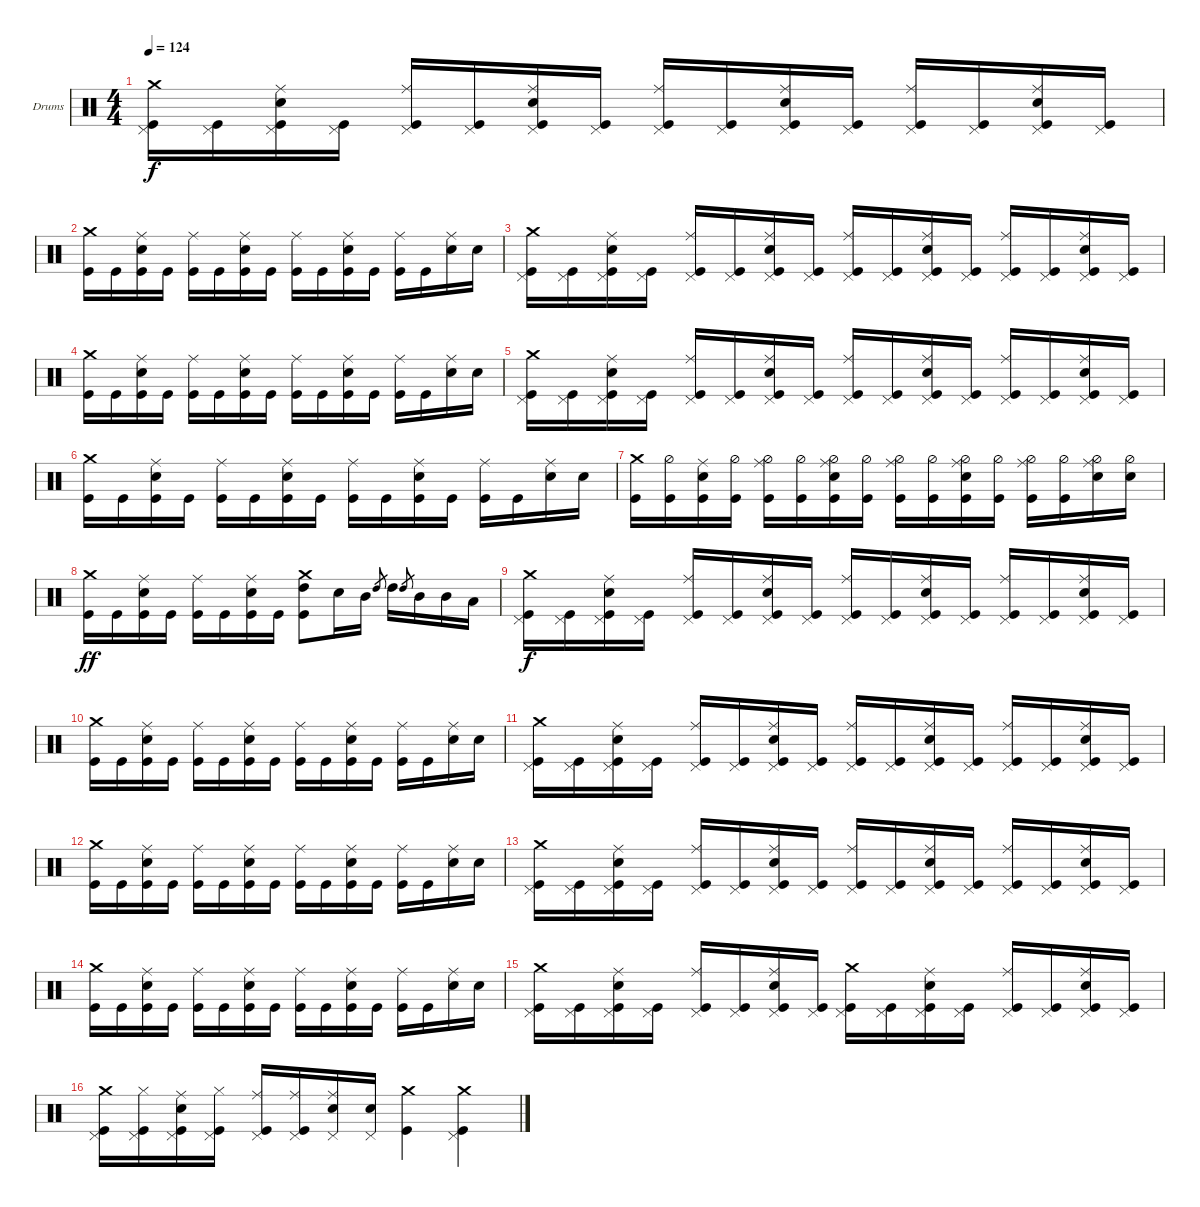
\defaultSystemsLayout 4
\bracketExtendMode groupsimilarinstruments
\firstSystemTrackNameOrientation horizontal
\otherSystemsTrackNameOrientation horizontal
\track ("Drumkit" "Drums") {instrument percussion}
\staff {score}
\articulation defaults
\ts (4 4)
\tempo 124
\clef neutral
\ks c
("Crash medium (hit)" "Kick (hit)" "Pedal Hi-Hat (hit)").16{dy f} ("Kick (hit)" "Pedal Hi-Hat (hit)").16 ("Snare (hit) 2" "Ride (middle)" "Kick (hit)" "Pedal Hi-Hat (hit)").16 ("Kick (hit)" "Pedal Hi-Hat (hit)").16 ("Ride (middle)" "Kick (hit)" "Pedal Hi-Hat (hit)").16 ("Kick (hit)" "Pedal Hi-Hat (hit)").16 ("Snare (hit) 2" "Ride (middle)" "Kick (hit)" "Pedal Hi-Hat (hit)").16 ("Kick (hit)" "Pedal Hi-Hat (hit)").16 ("Ride (middle)" "Kick (hit)" "Pedal Hi-Hat (hit)").16 ("Kick (hit)" "Pedal Hi-Hat (hit)").16 ("Snare (hit) 2" "Ride (middle)" "Kick (hit)" "Pedal Hi-Hat (hit)").16 ("Kick (hit)" "Pedal Hi-Hat (hit)").16 ("Ride (middle)" "Kick (hit)" "Pedal Hi-Hat (hit)").16 ("Kick (hit)" "Pedal Hi-Hat (hit)").16 ("Snare (hit) 2" "Ride (middle)" "Kick (hit)" "Pedal Hi-Hat (hit)").16 ("Kick (hit)" "Pedal Hi-Hat (hit)").16 |
("Crash medium (hit)" "Kick (hit)").16 "Kick (hit)".16 ("Snare (hit) 2" "Ride (middle)" "Kick (hit)").16 "Kick (hit)".16 ("Ride (middle)" "Kick (hit)").16 "Kick (hit)".16 ("Snare (hit) 2" "Ride (middle)" "Kick (hit)").16 "Kick (hit)".16 ("Ride (middle)" "Kick (hit)").16 "Kick (hit)".16 ("Snare (hit) 2" "Ride (middle)" "Kick (hit)").16 "Kick (hit)".16 ("Ride (middle)" "Kick (hit)").16 "Kick (hit)".16 ("Snare (hit) 2" "Ride (middle)").16 "Snare (hit) 2".16 |
("Crash medium (hit)" "Kick (hit)" "Pedal Hi-Hat (hit)").16 ("Kick (hit)" "Pedal Hi-Hat (hit)").16 ("Snare (hit) 2" "Ride (middle)" "Kick (hit)" "Pedal Hi-Hat (hit)").16 ("Kick (hit)" "Pedal Hi-Hat (hit)").16 ("Ride (middle)" "Kick (hit)" "Pedal Hi-Hat (hit)").16 ("Kick (hit)" "Pedal Hi-Hat (hit)").16 ("Snare (hit) 2" "Ride (middle)" "Kick (hit)" "Pedal Hi-Hat (hit)").16 ("Kick (hit)" "Pedal Hi-Hat (hit)").16 ("Ride (middle)" "Kick (hit)" "Pedal Hi-Hat (hit)").16 ("Kick (hit)" "Pedal Hi-Hat (hit)").16 ("Snare (hit) 2" "Ride (middle)" "Kick (hit)" "Pedal Hi-Hat (hit)").16 ("Kick (hit)" "Pedal Hi-Hat (hit)").16 ("Ride (middle)" "Kick (hit)" "Pedal Hi-Hat (hit)").16 ("Kick (hit)" "Pedal Hi-Hat (hit)").16 ("Snare (hit) 2" "Ride (middle)" "Kick (hit)" "Pedal Hi-Hat (hit)").16 ("Kick (hit)" "Pedal Hi-Hat (hit)").16 |
("Crash medium (hit)" "Kick (hit)").16 "Kick (hit)".16 ("Snare (hit) 2" "Ride (middle)" "Kick (hit)").16 "Kick (hit)".16 ("Ride (middle)" "Kick (hit)").16 "Kick (hit)".16 ("Snare (hit) 2" "Ride (middle)" "Kick (hit)").16 "Kick (hit)".16 ("Ride (middle)" "Kick (hit)").16 "Kick (hit)".16 ("Snare (hit) 2" "Ride (middle)" "Kick (hit)").16 "Kick (hit)".16 ("Ride (middle)" "Kick (hit)").16 "Kick (hit)".16 ("Snare (hit) 2" "Ride (middle)").16 "Snare (hit) 2".16 |
("Crash medium (hit)" "Kick (hit)" "Pedal Hi-Hat (hit)").16 ("Kick (hit)" "Pedal Hi-Hat (hit)").16 ("Snare (hit) 2" "Ride (middle)" "Kick (hit)" "Pedal Hi-Hat (hit)").16 ("Kick (hit)" "Pedal Hi-Hat (hit)").16 ("Ride (middle)" "Kick (hit)" "Pedal Hi-Hat (hit)").16 ("Kick (hit)" "Pedal Hi-Hat (hit)").16 ("Snare (hit) 2" "Ride (middle)" "Kick (hit)" "Pedal Hi-Hat (hit)").16 ("Kick (hit)" "Pedal Hi-Hat (hit)").16 ("Ride (middle)" "Kick (hit)" "Pedal Hi-Hat (hit)").16 ("Kick (hit)" "Pedal Hi-Hat (hit)").16 ("Snare (hit) 2" "Ride (middle)" "Kick (hit)" "Pedal Hi-Hat (hit)").16 ("Kick (hit)" "Pedal Hi-Hat (hit)").16 ("Ride (middle)" "Kick (hit)" "Pedal Hi-Hat (hit)").16 ("Kick (hit)" "Pedal Hi-Hat (hit)").16 ("Snare (hit) 2" "Ride (middle)" "Kick (hit)" "Pedal Hi-Hat (hit)").16 ("Kick (hit)" "Pedal Hi-Hat (hit)").16 |
("Crash medium (hit)" "Kick (hit)").16 "Kick (hit)".16 ("Snare (hit) 2" "Ride (middle)" "Kick (hit)").16 "Kick (hit)".16 ("Ride (middle)" "Kick (hit)").16 "Kick (hit)".16 ("Snare (hit) 2" "Ride (middle)" "Kick (hit)").16 "Kick (hit)".16 ("Ride (middle)" "Kick (hit)").16 "Kick (hit)".16 ("Snare (hit) 2" "Ride (middle)" "Kick (hit)").16 "Kick (hit)".16 ("Ride (middle)" "Kick (hit)").16 "Kick (hit)".16 ("Snare (hit) 2" "Ride (middle)").16 "Snare (hit) 2".16 |
("Crash medium (hit)" "Kick (hit)").16 ("Kick (hit)" "Hi-Hat (half)").16 ("Snare (hit) 2" "Ride (middle)" "Kick (hit)").16 ("Kick (hit)" "Hi-Hat (half)").16 ("Ride (middle)" "Kick (hit)" "Hi-Hat (half)").16 ("Kick (hit)" "Hi-Hat (half)").16 ("Snare (hit) 2" "Ride (middle)" "Kick (hit)" "Hi-Hat (half)").16 ("Kick (hit)" "Hi-Hat (half)").16 ("Ride (middle)" "Kick (hit)" "Hi-Hat (half)").16 ("Kick (hit)" "Hi-Hat (half)").16 ("Snare (hit) 2" "Ride (middle)" "Kick (hit)" "Hi-Hat (half)").16 ("Kick (hit)" "Hi-Hat (half)").16 ("Ride (middle)" "Kick (hit)" "Hi-Hat (half)").16 ("Kick (hit)" "Hi-Hat (half)").16 ("Snare (hit) 2" "Ride (middle)" "Hi-Hat (half)").16 ("Snare (hit) 2" "Hi-Hat (half)").16 |
("Crash medium (hit)" "Kick (hit)").16{dy ff} "Kick (hit)".16 ("Snare (hit) 2" "Ride (middle)" "Kick (hit)").16 "Kick (hit)".16 ("Ride (middle)" "Kick (hit)").16 "Kick (hit)".16 ("Snare (hit) 2" "Ride (middle)" "Kick (hit)").16 "Kick (hit)".16 ("Kick (hit)" "Crash medium (hit)" "High Tom (hit)").8 "Snare (hit) 2".16 "Mid Tom (hit)".16 "High Tom (hit)".8{gr} "High Tom (hit)".16 "High Tom (hit)".8{gr} "Mid Tom (hit)".16 "Mid Tom (hit)".16 "Low Tom (hit)".16 |
("Crash medium (hit)" "Kick (hit)" "Pedal Hi-Hat (hit)").16{dy f} ("Kick (hit)" "Pedal Hi-Hat (hit)").16 ("Snare (hit) 2" "Ride (middle)" "Kick (hit)" "Pedal Hi-Hat (hit)").16 ("Kick (hit)" "Pedal Hi-Hat (hit)").16 ("Ride (middle)" "Kick (hit)" "Pedal Hi-Hat (hit)").16 ("Kick (hit)" "Pedal Hi-Hat (hit)").16 ("Snare (hit) 2" "Ride (middle)" "Kick (hit)" "Pedal Hi-Hat (hit)").16 ("Kick (hit)" "Pedal Hi-Hat (hit)").16 ("Ride (middle)" "Kick (hit)" "Pedal Hi-Hat (hit)").16 ("Kick (hit)" "Pedal Hi-Hat (hit)").16 ("Snare (hit) 2" "Ride (middle)" "Kick (hit)" "Pedal Hi-Hat (hit)").16 ("Kick (hit)" "Pedal Hi-Hat (hit)").16 ("Ride (middle)" "Kick (hit)" "Pedal Hi-Hat (hit)").16 ("Kick (hit)" "Pedal Hi-Hat (hit)").16 ("Snare (hit) 2" "Ride (middle)" "Kick (hit)" "Pedal Hi-Hat (hit)").16 ("Kick (hit)" "Pedal Hi-Hat (hit)").16 |
("Crash medium (hit)" "Kick (hit)").16 "Kick (hit)".16 ("Snare (hit) 2" "Ride (middle)" "Kick (hit)").16 "Kick (hit)".16 ("Ride (middle)" "Kick (hit)").16 "Kick (hit)".16 ("Snare (hit) 2" "Ride (middle)" "Kick (hit)").16 "Kick (hit)".16 ("Ride (middle)" "Kick (hit)").16 "Kick (hit)".16 ("Snare (hit) 2" "Ride (middle)" "Kick (hit)").16 "Kick (hit)".16 ("Ride (middle)" "Kick (hit)").16 "Kick (hit)".16 ("Snare (hit) 2" "Ride (middle)").16 "Snare (hit) 2".16 |
("Crash medium (hit)" "Kick (hit)" "Pedal Hi-Hat (hit)").16 ("Kick (hit)" "Pedal Hi-Hat (hit)").16 ("Snare (hit) 2" "Ride (middle)" "Kick (hit)" "Pedal Hi-Hat (hit)").16 ("Kick (hit)" "Pedal Hi-Hat (hit)").16 ("Ride (middle)" "Kick (hit)" "Pedal Hi-Hat (hit)").16 ("Kick (hit)" "Pedal Hi-Hat (hit)").16 ("Snare (hit) 2" "Ride (middle)" "Kick (hit)" "Pedal Hi-Hat (hit)").16 ("Kick (hit)" "Pedal Hi-Hat (hit)").16 ("Ride (middle)" "Kick (hit)" "Pedal Hi-Hat (hit)").16 ("Kick (hit)" "Pedal Hi-Hat (hit)").16 ("Snare (hit) 2" "Ride (middle)" "Kick (hit)" "Pedal Hi-Hat (hit)").16 ("Kick (hit)" "Pedal Hi-Hat (hit)").16 ("Ride (middle)" "Kick (hit)" "Pedal Hi-Hat (hit)").16 ("Kick (hit)" "Pedal Hi-Hat (hit)").16 ("Snare (hit) 2" "Ride (middle)" "Kick (hit)" "Pedal Hi-Hat (hit)").16 ("Kick (hit)" "Pedal Hi-Hat (hit)").16 |
("Crash medium (hit)" "Kick (hit)").16 "Kick (hit)".16 ("Snare (hit) 2" "Ride (middle)" "Kick (hit)").16 "Kick (hit)".16 ("Ride (middle)" "Kick (hit)").16 "Kick (hit)".16 ("Snare (hit) 2" "Ride (middle)" "Kick (hit)").16 "Kick (hit)".16 ("Ride (middle)" "Kick (hit)").16 "Kick (hit)".16 ("Snare (hit) 2" "Ride (middle)" "Kick (hit)").16 "Kick (hit)".16 ("Ride (middle)" "Kick (hit)").16 "Kick (hit)".16 ("Snare (hit) 2" "Ride (middle)").16 "Snare (hit) 2".16 |
("Crash medium (hit)" "Kick (hit)" "Pedal Hi-Hat (hit)").16 ("Kick (hit)" "Pedal Hi-Hat (hit)").16 ("Snare (hit) 2" "Ride (middle)" "Kick (hit)" "Pedal Hi-Hat (hit)").16 ("Kick (hit)" "Pedal Hi-Hat (hit)").16 ("Ride (middle)" "Kick (hit)" "Pedal Hi-Hat (hit)").16 ("Kick (hit)" "Pedal Hi-Hat (hit)").16 ("Snare (hit) 2" "Ride (middle)" "Kick (hit)" "Pedal Hi-Hat (hit)").16 ("Kick (hit)" "Pedal Hi-Hat (hit)").16 ("Ride (middle)" "Kick (hit)" "Pedal Hi-Hat (hit)").16 ("Kick (hit)" "Pedal Hi-Hat (hit)").16 ("Snare (hit) 2" "Ride (middle)" "Kick (hit)" "Pedal Hi-Hat (hit)").16 ("Kick (hit)" "Pedal Hi-Hat (hit)").16 ("Ride (middle)" "Kick (hit)" "Pedal Hi-Hat (hit)").16 ("Kick (hit)" "Pedal Hi-Hat (hit)").16 ("Snare (hit) 2" "Ride (middle)" "Kick (hit)" "Pedal Hi-Hat (hit)").16 ("Kick (hit)" "Pedal Hi-Hat (hit)").16 |
("Crash medium (hit)" "Kick (hit)").16 "Kick (hit)".16 ("Snare (hit) 2" "Ride (middle)" "Kick (hit)").16 "Kick (hit)".16 ("Ride (middle)" "Kick (hit)").16 "Kick (hit)".16 ("Snare (hit) 2" "Ride (middle)" "Kick (hit)").16 "Kick (hit)".16 ("Ride (middle)" "Kick (hit)").16 "Kick (hit)".16 ("Snare (hit) 2" "Ride (middle)" "Kick (hit)").16 "Kick (hit)".16 ("Ride (middle)" "Kick (hit)").16 "Kick (hit)".16 ("Snare (hit) 2" "Ride (middle)").16 "Snare (hit) 2".16 |
("Crash medium (hit)" "Kick (hit)" "Pedal Hi-Hat (hit)").16 ("Kick (hit)" "Pedal Hi-Hat (hit)").16 ("Snare (hit) 2" "Ride (middle)" "Kick (hit)" "Pedal Hi-Hat (hit)").16 ("Kick (hit)" "Pedal Hi-Hat (hit)").16 ("Ride (middle)" "Kick (hit)" "Pedal Hi-Hat (hit)").16 ("Kick (hit)" "Pedal Hi-Hat (hit)").16 ("Snare (hit) 2" "Ride (middle)" "Kick (hit)" "Pedal Hi-Hat (hit)").16 ("Kick (hit)" "Pedal Hi-Hat (hit)").16 ("Kick (hit)" "Pedal Hi-Hat (hit)" "Crash medium (hit)").16 ("Kick (hit)" "Pedal Hi-Hat (hit)").16 ("Snare (hit) 2" "Ride (middle)" "Kick (hit)" "Pedal Hi-Hat (hit)").16 ("Kick (hit)" "Pedal Hi-Hat (hit)").16 ("Ride (middle)" "Kick (hit)" "Pedal Hi-Hat (hit)").16 ("Kick (hit)" "Pedal Hi-Hat (hit)").16 ("Snare (hit) 2" "Ride (middle)" "Kick (hit)" "Pedal Hi-Hat (hit)").16 ("Kick (hit)" "Pedal Hi-Hat (hit)").16 |
("Crash medium (hit)" "Kick (hit)" "Pedal Hi-Hat (hit)").16 ("Kick (hit)" "Pedal Hi-Hat (hit)" "Hi-Hat (closed)").16 ("Snare (hit) 2" "Ride (middle)" "Kick (hit)" "Pedal Hi-Hat (hit)").16 ("Kick (hit)" "Pedal Hi-Hat (hit)" "Hi-Hat (closed)").16 ("Ride (middle)" "Kick (hit)" "Pedal Hi-Hat (hit)").16 ("Kick (hit)" "Pedal Hi-Hat (hit)" "Ride (middle)").16 ("Snare (hit) 2" "Ride (middle)" "Pedal Hi-Hat (hit)").16 ("Snare (hit) 2" "Pedal Hi-Hat (hit)").16 ("Crash medium (hit)" "Kick (hit)").4 ("Crash medium (hit)" "Kick (hit)" "Pedal Hi-Hat (hit)").4
